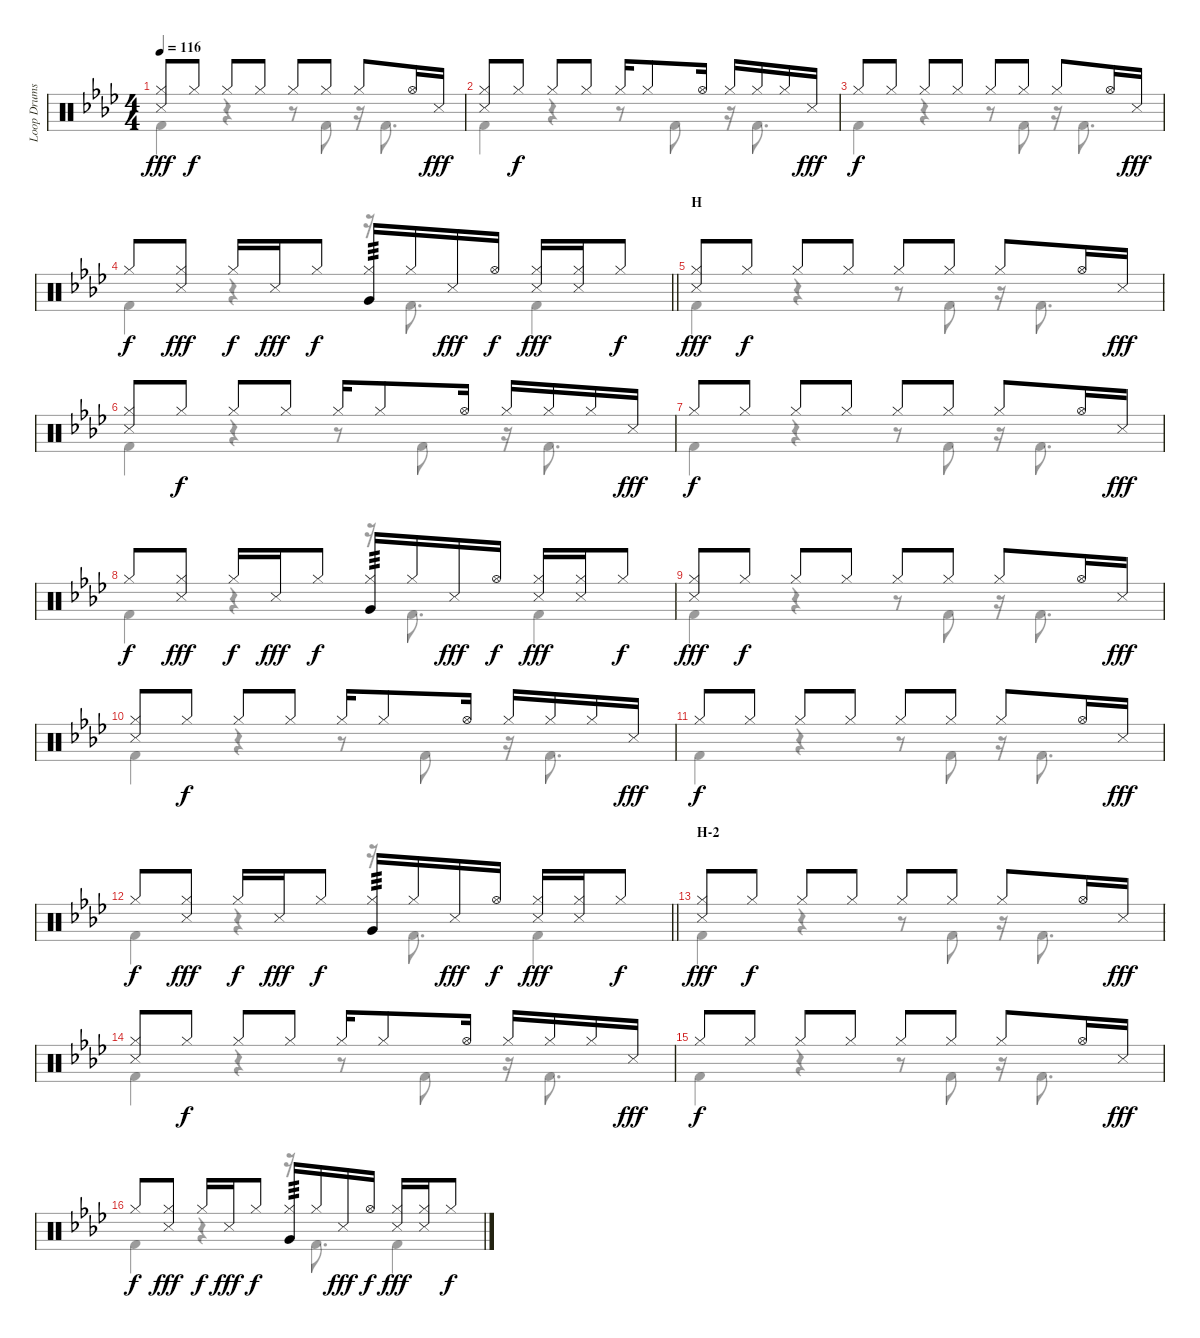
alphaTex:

\track ("Loop Drums I" "Loop Drums") {instrument percussion}
\staff {score}
\articulation defaults
\voice
\ts (4 4)
\tempo 116
\clef neutral
\ks ab
("Hi-Hat (closed)" "Snare (side stick) 3").8{dy fff} "Hi-Hat (closed)".8{dy f} "Hi-Hat (closed)".8 "Hi-Hat (closed)".8 "Hi-Hat (closed)".8 "Hi-Hat (closed)".8 "Hi-Hat (closed)".8 "Hi-Hat (open)".16 "Snare (side stick) 3".16{dy fff} |
("Hi-Hat (closed)" "Snare (side stick) 3").8 "Hi-Hat (closed)".8{dy f} "Hi-Hat (closed)".8 "Hi-Hat (closed)".8 "Hi-Hat (closed)".16 "Hi-Hat (closed)".8 "Hi-Hat (open)".16 "Hi-Hat (closed)".16 "Hi-Hat (closed)".16 "Hi-Hat (closed)".16 "Snare (side stick) 3".16{dy fff} |
"Hi-Hat (closed)".8{dy f} "Hi-Hat (closed)".8 "Hi-Hat (closed)".8 "Hi-Hat (closed)".8 "Hi-Hat (closed)".8 "Hi-Hat (closed)".8 "Hi-Hat (closed)".8 "Hi-Hat (open)".16 "Snare (side stick) 3".16{dy fff} |
\barLineRight lightlight "Hi-Hat (closed)".8{dy f}
("Hi-Hat (closed)" "Snare (side stick) 3").8{dy fff} "Hi-Hat (closed)".16{dy f} "Snare (side stick) 3".16{dy fff} "Hi-Hat (closed)".8{dy f} ("Hi-Hat (closed)" "Very Low Tom (hit)").16{tp 3} "Hi-Hat (closed)".16 "Snare (side stick) 3".16{dy fff} "Hi-Hat (open)".16{dy f} ("Hi-Hat (closed)" "Snare (side stick) 3").16{dy fff} ("Hi-Hat (closed)" "Snare (side stick) 3").16 "Hi-Hat (closed)".8{dy f} |
\section ("" "H")
("Hi-Hat (closed)" "Snare (side stick) 3").8{dy fff} "Hi-Hat (closed)".8{dy f} "Hi-Hat (closed)".8 "Hi-Hat (closed)".8 "Hi-Hat (closed)".8 "Hi-Hat (closed)".8 "Hi-Hat (closed)".8 "Hi-Hat (open)".16 "Snare (side stick) 3".16{dy fff} |
("Hi-Hat (closed)" "Snare (side stick) 3").8 "Hi-Hat (closed)".8{dy f} "Hi-Hat (closed)".8 "Hi-Hat (closed)".8 "Hi-Hat (closed)".16 "Hi-Hat (closed)".8 "Hi-Hat (open)".16 "Hi-Hat (closed)".16 "Hi-Hat (closed)".16 "Hi-Hat (closed)".16 "Snare (side stick) 3".16{dy fff} |
"Hi-Hat (closed)".8{dy f} "Hi-Hat (closed)".8 "Hi-Hat (closed)".8 "Hi-Hat (closed)".8 "Hi-Hat (closed)".8 "Hi-Hat (closed)".8 "Hi-Hat (closed)".8 "Hi-Hat (open)".16 "Snare (side stick) 3".16{dy fff} |
"Hi-Hat (closed)".8{dy f} ("Hi-Hat (closed)" "Snare (side stick) 3").8{dy fff} "Hi-Hat (closed)".16{dy f} "Snare (side stick) 3".16{dy fff} "Hi-Hat (closed)".8{dy f} ("Hi-Hat (closed)" "Very Low Tom (hit)").16{tp 3} "Hi-Hat (closed)".16 "Snare (side stick) 3".16{dy fff} "Hi-Hat (open)".16{dy f} ("Hi-Hat (closed)" "Snare (side stick) 3").16{dy fff} ("Hi-Hat (closed)" "Snare (side stick) 3").16 "Hi-Hat (closed)".8{dy f} |
("Hi-Hat (closed)" "Snare (side stick) 3").8{dy fff} "Hi-Hat (closed)".8{dy f} "Hi-Hat (closed)".8 "Hi-Hat (closed)".8 "Hi-Hat (closed)".8 "Hi-Hat (closed)".8 "Hi-Hat (closed)".8 "Hi-Hat (open)".16 "Snare (side stick) 3".16{dy fff} |
("Hi-Hat (closed)" "Snare (side stick) 3").8 "Hi-Hat (closed)".8{dy f} "Hi-Hat (closed)".8 "Hi-Hat (closed)".8 "Hi-Hat (closed)".16 "Hi-Hat (closed)".8 "Hi-Hat (open)".16 "Hi-Hat (closed)".16 "Hi-Hat (closed)".16 "Hi-Hat (closed)".16 "Snare (side stick) 3".16{dy fff} |
"Hi-Hat (closed)".8{dy f} "Hi-Hat (closed)".8 "Hi-Hat (closed)".8 "Hi-Hat (closed)".8 "Hi-Hat (closed)".8 "Hi-Hat (closed)".8 "Hi-Hat (closed)".8 "Hi-Hat (open)".16 "Snare (side stick) 3".16{dy fff} |
\barLineRight lightlight "Hi-Hat (closed)".8{dy f}
("Hi-Hat (closed)" "Snare (side stick) 3").8{dy fff} "Hi-Hat (closed)".16{dy f} "Snare (side stick) 3".16{dy fff} "Hi-Hat (closed)".8{dy f} ("Hi-Hat (closed)" "Very Low Tom (hit)").16{tp 3} "Hi-Hat (closed)".16 "Snare (side stick) 3".16{dy fff} "Hi-Hat (open)".16{dy f} ("Hi-Hat (closed)" "Snare (side stick) 3").16{dy fff} ("Hi-Hat (closed)" "Snare (side stick) 3").16 "Hi-Hat (closed)".8{dy f} |
\section ("" "H-2")
("Hi-Hat (closed)" "Snare (side stick) 3").8{dy fff} "Hi-Hat (closed)".8{dy f} "Hi-Hat (closed)".8 "Hi-Hat (closed)".8 "Hi-Hat (closed)".8 "Hi-Hat (closed)".8 "Hi-Hat (closed)".8 "Hi-Hat (open)".16 "Snare (side stick) 3".16{dy fff} |
("Hi-Hat (closed)" "Snare (side stick) 3").8 "Hi-Hat (closed)".8{dy f} "Hi-Hat (closed)".8 "Hi-Hat (closed)".8 "Hi-Hat (closed)".16 "Hi-Hat (closed)".8 "Hi-Hat (open)".16 "Hi-Hat (closed)".16 "Hi-Hat (closed)".16 "Hi-Hat (closed)".16 "Snare (side stick) 3".16{dy fff} |
"Hi-Hat (closed)".8{dy f} "Hi-Hat (closed)".8 "Hi-Hat (closed)".8 "Hi-Hat (closed)".8 "Hi-Hat (closed)".8 "Hi-Hat (closed)".8 "Hi-Hat (closed)".8 "Hi-Hat (open)".16 "Snare (side stick) 3".16{dy fff} |
"Hi-Hat (closed)".8{dy f} ("Hi-Hat (closed)" "Snare (side stick) 3").8{dy fff} "Hi-Hat (closed)".16{dy f} "Snare (side stick) 3".16{dy fff} "Hi-Hat (closed)".8{dy f} ("Hi-Hat (closed)" "Very Low Tom (hit)").16{tp 3} "Hi-Hat (closed)".16 "Snare (side stick) 3".16{dy fff} "Hi-Hat (open)".16{dy f} ("Hi-Hat (closed)" "Snare (side stick) 3").16{dy fff} ("Hi-Hat (closed)" "Snare (side stick) 3").16 "Hi-Hat (closed)".8{dy f}
\voice
\clef neutral
\ottava regular
\simile none
\ks ab "Kick (hit) 2".4{dy fff}
r.4 r.8 "Kick (hit) 2".8 r.16 "Kick (hit) 2".8{d} |
"Kick (hit) 2".4 r.4 r.8 "Kick (hit) 2".8 r.16 "Kick (hit) 2".8{d} |
"Kick (hit) 2".4 r.4 r.8 "Kick (hit) 2".8 r.16 "Kick (hit) 2".8{d} |
\barLineRight lightlight "Kick (hit) 2".4
r.4 r.16 "Kick (hit) 2".8{d} "Kick (hit) 2".4 |
"Kick (hit) 2".4 r.4 r.8 "Kick (hit) 2".8 r.16 "Kick (hit) 2".8{d} |
"Kick (hit) 2".4 r.4 r.8 "Kick (hit) 2".8 r.16 "Kick (hit) 2".8{d} |
"Kick (hit) 2".4 r.4 r.8 "Kick (hit) 2".8 r.16 "Kick (hit) 2".8{d} |
"Kick (hit) 2".4 r.4 r.16 "Kick (hit) 2".8{d} "Kick (hit) 2".4 |
"Kick (hit) 2".4 r.4 r.8 "Kick (hit) 2".8 r.16 "Kick (hit) 2".8{d} |
"Kick (hit) 2".4 r.4 r.8 "Kick (hit) 2".8 r.16 "Kick (hit) 2".8{d} |
"Kick (hit) 2".4 r.4 r.8 "Kick (hit) 2".8 r.16 "Kick (hit) 2".8{d} |
\barLineRight lightlight "Kick (hit) 2".4
r.4 r.16 "Kick (hit) 2".8{d} "Kick (hit) 2".4 |
"Kick (hit) 2".4 r.4 r.8 "Kick (hit) 2".8 r.16 "Kick (hit) 2".8{d} |
"Kick (hit) 2".4 r.4 r.8 "Kick (hit) 2".8 r.16 "Kick (hit) 2".8{d} |
"Kick (hit) 2".4 r.4 r.8 "Kick (hit) 2".8 r.16 "Kick (hit) 2".8{d} |
"Kick (hit) 2".4 r.4 r.16 "Kick (hit) 2".8{d} "Kick (hit) 2".4
